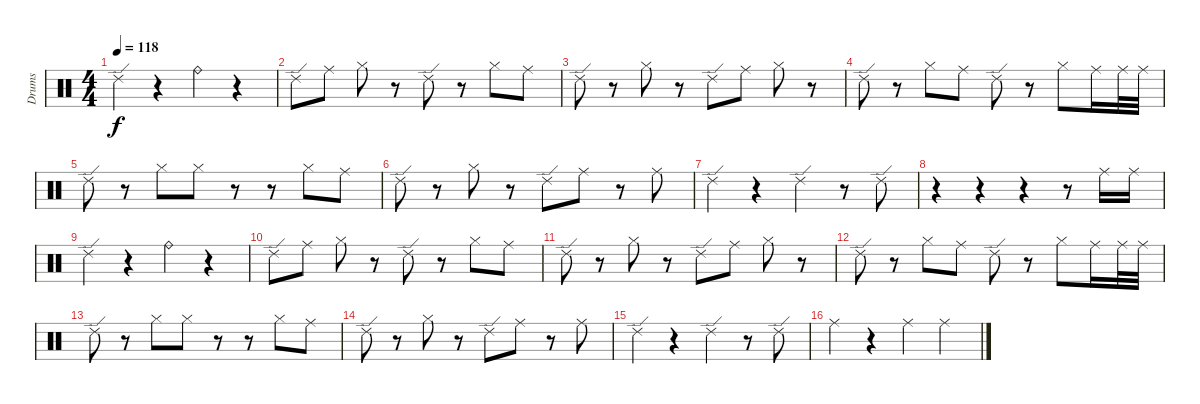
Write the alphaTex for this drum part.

\track ("Drums" "Drums") {instrument percussion}
\staff {score}
\articulation defaults
\ts (4 4)
\tempo 118
\clef neutral
\ks c "Ride (edge) 2".4{dy f}
r.4 "Ride (bell)".4 r.4 |
"Ride (edge) 2".8 "Ride (middle)".8 "Hi-Hat (closed)".8 r.8 "Ride (edge) 2".8 r.8 "Hi-Hat (closed)".8 "Ride (middle)".8 |
"Ride (edge) 2".8 r.8 "Hi-Hat (closed)".8 r.8 "Ride (edge) 2".8 "Ride (middle)".8 "Hi-Hat (closed)".8 r.8 |
"Ride (edge) 2".8 r.8 "Hi-Hat (closed)".8 "Ride (middle)".8 "Ride (edge) 2".8 r.8 "Hi-Hat (closed)".8 "Ride (middle)".16 "Ride (middle)".32 "Ride (middle)".32 |
"Ride (edge) 2".8 r.8 "Hi-Hat (closed)".8 "Hi-Hat (closed)".8 r.8 r.8 "Hi-Hat (closed)".8 "Ride (middle)".8 |
"Ride (edge) 2".8 r.8 "Hi-Hat (closed)".8 r.8 "Ride (edge) 2".8 "Ride (middle)".8 r.8 "Ride (middle)".8 |
"Ride (edge) 2".4 r.4 "Ride (edge) 2".4 r.8 "Ride (edge) 2".8 |
r.4 r.4 r.4 r.8 "Ride (middle)".16 "Ride (middle)".16 |
"Ride (edge) 2".4 r.4 "Ride (bell)".4 r.4 |
"Ride (edge) 2".8 "Ride (middle)".8 "Hi-Hat (closed)".8 r.8 "Ride (edge) 2".8 r.8 "Hi-Hat (closed)".8 "Ride (middle)".8 |
"Ride (edge) 2".8 r.8 "Hi-Hat (closed)".8 r.8 "Ride (edge) 2".8 "Ride (middle)".8 "Hi-Hat (closed)".8 r.8 |
"Ride (edge) 2".8 r.8 "Hi-Hat (closed)".8 "Ride (middle)".8 "Ride (edge) 2".8 r.8 "Hi-Hat (closed)".8 "Ride (middle)".16 "Ride (middle)".32 "Ride (middle)".32 |
"Ride (edge) 2".8 r.8 "Hi-Hat (closed)".8 "Hi-Hat (closed)".8 r.8 r.8 "Hi-Hat (closed)".8 "Ride (middle)".8 |
"Ride (edge) 2".8 r.8 "Hi-Hat (closed)".8 r.8 "Ride (edge) 2".8 "Ride (middle)".8 r.8 "Ride (middle)".8 |
"Ride (edge) 2".4 r.4 "Ride (edge) 2".4 r.8 "Ride (edge) 2".8 |
"Ride (middle)".4 r.4 "Ride (middle)".4 "Ride (middle)".4
